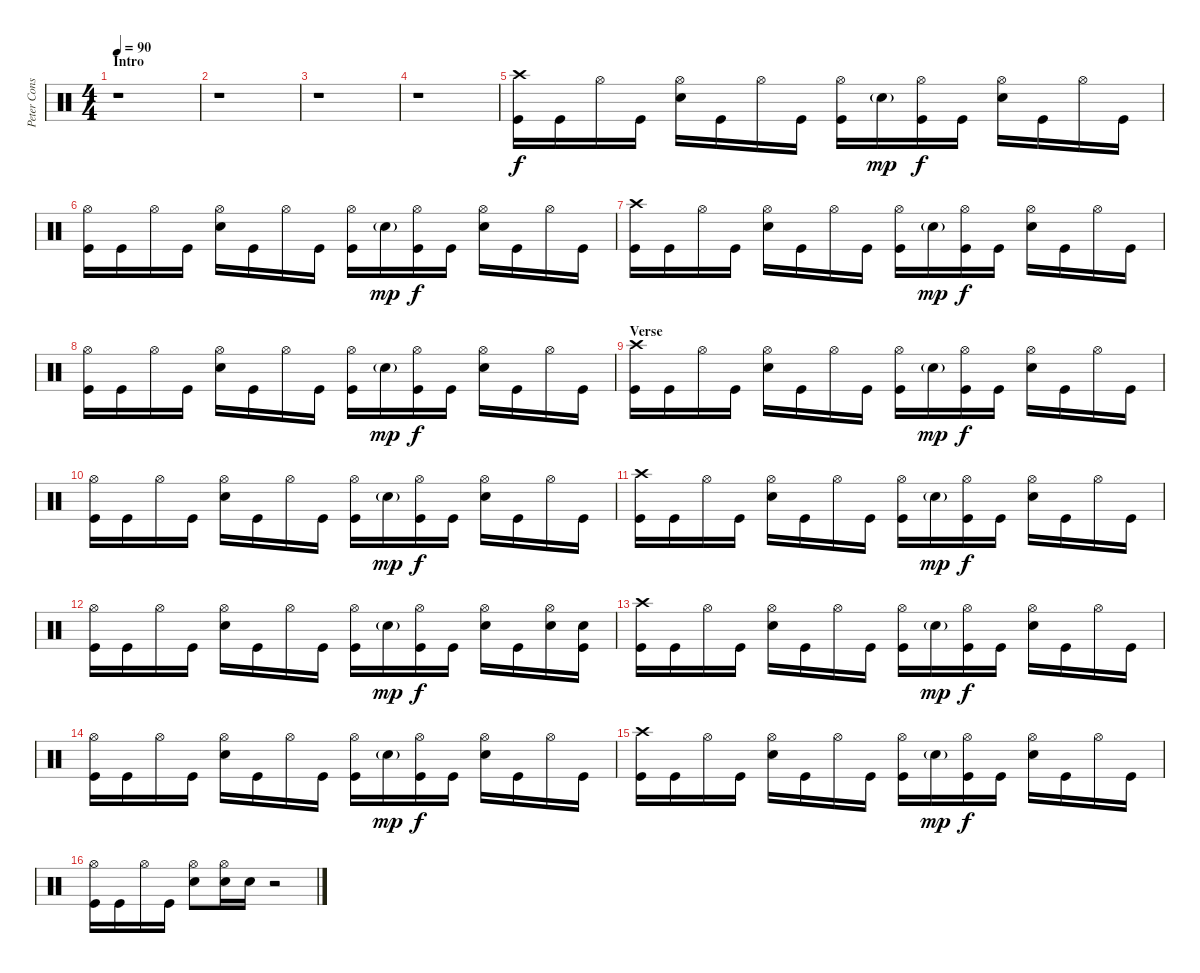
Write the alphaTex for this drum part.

\track ("Peter Constantinou" "Peter Cons") {instrument percussion}
\staff {score}
\articulation defaults
\ts (4 4)
\section ("" "Intro")
\tempo 90
\clef neutral
\ks c
r.1{dy f} |
r.1 |
r.1 |
r.1 |
("Crash high (hit)" "Kick (hit)").16 "Kick (hit)".16 "Hi-Hat (open)".16 "Kick (hit)".16 ("Hi-Hat (open)" "Snare (hit) 2").16 "Kick (hit)".16 "Hi-Hat (open)".16 "Kick (hit)".16 ("Hi-Hat (open)" "Kick (hit)").16 "Snare (hit) 2"{g}.16{dy mp} ("Hi-Hat (open)" "Kick (hit)").16{dy f} "Kick (hit)".16 ("Hi-Hat (open)" "Snare (hit) 2").16 "Kick (hit)".16 "Hi-Hat (open)".16 "Kick (hit)".16 |
("Hi-Hat (open)" "Kick (hit)").16 "Kick (hit)".16 "Hi-Hat (open)".16 "Kick (hit)".16 ("Hi-Hat (open)" "Snare (hit) 2").16 "Kick (hit)".16 "Hi-Hat (open)".16 "Kick (hit)".16 ("Hi-Hat (open)" "Kick (hit)").16 "Snare (hit) 2"{g}.16{dy mp} ("Hi-Hat (open)" "Kick (hit)").16{dy f} "Kick (hit)".16 ("Hi-Hat (open)" "Snare (hit) 2").16 "Kick (hit)".16 "Hi-Hat (open)".16 "Kick (hit)".16 |
("Crash high (hit)" "Kick (hit)").16 "Kick (hit)".16 "Hi-Hat (open)".16 "Kick (hit)".16 ("Hi-Hat (open)" "Snare (hit) 2").16 "Kick (hit)".16 "Hi-Hat (open)".16 "Kick (hit)".16 ("Hi-Hat (open)" "Kick (hit)").16 "Snare (hit) 2"{g}.16{dy mp} ("Hi-Hat (open)" "Kick (hit)").16{dy f} "Kick (hit)".16 ("Hi-Hat (open)" "Snare (hit) 2").16 "Kick (hit)".16 "Hi-Hat (open)".16 "Kick (hit)".16 |
("Hi-Hat (open)" "Kick (hit)").16 "Kick (hit)".16 "Hi-Hat (open)".16 "Kick (hit)".16 ("Hi-Hat (open)" "Snare (hit) 2").16 "Kick (hit)".16 "Hi-Hat (open)".16 "Kick (hit)".16 ("Hi-Hat (open)" "Kick (hit)").16 "Snare (hit) 2"{g}.16{dy mp} ("Hi-Hat (open)" "Kick (hit)").16{dy f} "Kick (hit)".16 ("Hi-Hat (open)" "Snare (hit) 2").16 "Kick (hit)".16 "Hi-Hat (open)".16 "Kick (hit)".16 |
\section ("" "Verse")
("Crash high (hit)" "Kick (hit)").16 "Kick (hit)".16 "Hi-Hat (open)".16 "Kick (hit)".16 ("Hi-Hat (open)" "Snare (hit) 2").16 "Kick (hit)".16 "Hi-Hat (open)".16 "Kick (hit)".16 ("Hi-Hat (open)" "Kick (hit)").16 "Snare (hit) 2"{g}.16{dy mp} ("Hi-Hat (open)" "Kick (hit)").16{dy f} "Kick (hit)".16 ("Hi-Hat (open)" "Snare (hit) 2").16 "Kick (hit)".16 "Hi-Hat (open)".16 "Kick (hit)".16 |
("Hi-Hat (open)" "Kick (hit)").16 "Kick (hit)".16 "Hi-Hat (open)".16 "Kick (hit)".16 ("Hi-Hat (open)" "Snare (hit) 2").16 "Kick (hit)".16 "Hi-Hat (open)".16 "Kick (hit)".16 ("Hi-Hat (open)" "Kick (hit)").16 "Snare (hit) 2"{g}.16{dy mp} ("Hi-Hat (open)" "Kick (hit)").16{dy f} "Kick (hit)".16 ("Hi-Hat (open)" "Snare (hit) 2").16 "Kick (hit)".16 "Hi-Hat (open)".16 "Kick (hit)".16 |
("Crash high (hit)" "Kick (hit)").16 "Kick (hit)".16 "Hi-Hat (open)".16 "Kick (hit)".16 ("Hi-Hat (open)" "Snare (hit) 2").16 "Kick (hit)".16 "Hi-Hat (open)".16 "Kick (hit)".16 ("Hi-Hat (open)" "Kick (hit)").16 "Snare (hit) 2"{g}.16{dy mp} ("Hi-Hat (open)" "Kick (hit)").16{dy f} "Kick (hit)".16 ("Hi-Hat (open)" "Snare (hit) 2").16 "Kick (hit)".16 "Hi-Hat (open)".16 "Kick (hit)".16 |
("Hi-Hat (open)" "Kick (hit)").16 "Kick (hit)".16 "Hi-Hat (open)".16 "Kick (hit)".16 ("Hi-Hat (open)" "Snare (hit) 2").16 "Kick (hit)".16 "Hi-Hat (open)".16 "Kick (hit)".16 ("Hi-Hat (open)" "Kick (hit)").16 "Snare (hit) 2"{g}.16{dy mp} ("Hi-Hat (open)" "Kick (hit)").16{dy f} "Kick (hit)".16 ("Hi-Hat (open)" "Snare (hit) 2").16 "Kick (hit)".16 ("Hi-Hat (open)" "Snare (hit) 2").16 ("Snare (hit) 2" "Kick (hit)").16 |
("Crash high (hit)" "Kick (hit)").16 "Kick (hit)".16 "Hi-Hat (open)".16 "Kick (hit)".16 ("Hi-Hat (open)" "Snare (hit) 2").16 "Kick (hit)".16 "Hi-Hat (open)".16 "Kick (hit)".16 ("Hi-Hat (open)" "Kick (hit)").16 "Snare (hit) 2"{g}.16{dy mp} ("Hi-Hat (open)" "Kick (hit)").16{dy f} "Kick (hit)".16 ("Hi-Hat (open)" "Snare (hit) 2").16 "Kick (hit)".16 "Hi-Hat (open)".16 "Kick (hit)".16 |
("Hi-Hat (open)" "Kick (hit)").16 "Kick (hit)".16 "Hi-Hat (open)".16 "Kick (hit)".16 ("Hi-Hat (open)" "Snare (hit) 2").16 "Kick (hit)".16 "Hi-Hat (open)".16 "Kick (hit)".16 ("Hi-Hat (open)" "Kick (hit)").16 "Snare (hit) 2"{g}.16{dy mp} ("Hi-Hat (open)" "Kick (hit)").16{dy f} "Kick (hit)".16 ("Hi-Hat (open)" "Snare (hit) 2").16 "Kick (hit)".16 "Hi-Hat (open)".16 "Kick (hit)".16 |
("Crash high (hit)" "Kick (hit)").16 "Kick (hit)".16 "Hi-Hat (open)".16 "Kick (hit)".16 ("Hi-Hat (open)" "Snare (hit) 2").16 "Kick (hit)".16 "Hi-Hat (open)".16 "Kick (hit)".16 ("Hi-Hat (open)" "Kick (hit)").16 "Snare (hit) 2"{g}.16{dy mp} ("Hi-Hat (open)" "Kick (hit)").16{dy f} "Kick (hit)".16 ("Hi-Hat (open)" "Snare (hit) 2").16 "Kick (hit)".16 "Hi-Hat (open)".16 "Kick (hit)".16 |
("Hi-Hat (open)" "Kick (hit)").16 "Kick (hit)".16 "Hi-Hat (open)".16 "Kick (hit)".16 ("Hi-Hat (open)" "Snare (hit) 2").8 ("Hi-Hat (open)" "Snare (hit) 2").16 "Snare (hit) 2".16 r.2
